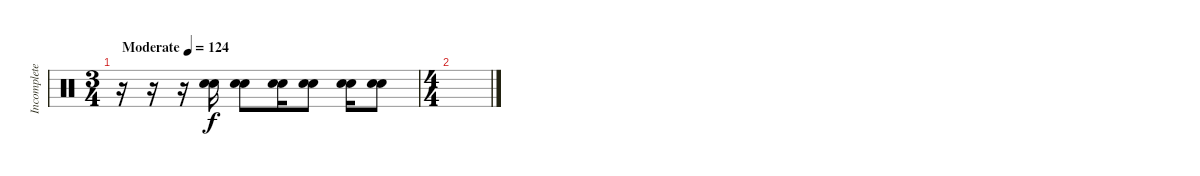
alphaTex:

\track ("Incomplete" "Incomplete") {instrument percussion}
\staff {score}
\articulation defaults
\ts (3 4)
\tempo (124 "Moderate")
\clef neutral
\ks c
r.16{dy f} r.16 r.16 ("Electric Snare (hit)" "Snare (hit) 2").16 ("Electric Snare (hit)" "Snare (hit) 2").8 ("Electric Snare (hit)" "Snare (hit) 2").16 ("Electric Snare (hit)" "Snare (hit) 2").8 ("Electric Snare (hit)" "Snare (hit) 2").16 ("Electric Snare (hit)" "Snare (hit) 2").8 |
\ts (4 4)
